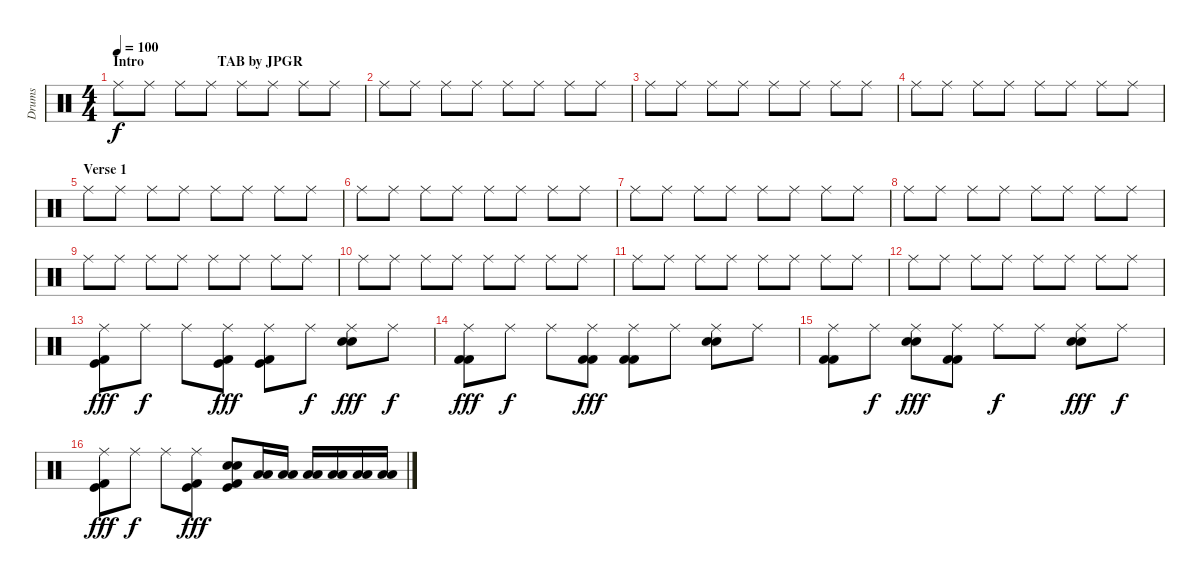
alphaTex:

\track ("Drums" "Drums") {instrument percussion}
\staff {score}
\articulation defaults
\ts (4 4)
\section ("" "Intro                     TAB by JPGR")
\tempo 100
\clef neutral
\ks c "Ride (middle)".8{dy f} "Ride (middle)".8 "Ride (middle)".8 "Ride (middle)".8 "Ride (middle)".8 "Ride (middle)".8 "Ride (middle)".8 "Ride (middle)".8
|
"Ride (middle)".8 "Ride (middle)".8 "Ride (middle)".8 "Ride (middle)".8 "Ride (middle)".8 "Ride (middle)".8 "Ride (middle)".8 "Ride (middle)".8 |
"Ride (middle)".8 "Ride (middle)".8 "Ride (middle)".8 "Ride (middle)".8 "Ride (middle)".8 "Ride (middle)".8 "Ride (middle)".8 "Ride (middle)".8 |
"Ride (middle)".8 "Ride (middle)".8 "Ride (middle)".8 "Ride (middle)".8 "Ride (middle)".8 "Ride (middle)".8 "Ride (middle)".8 "Ride (middle)".8 |
\section ("" "Verse 1")
"Ride (middle)".8 "Ride (middle)".8 "Ride (middle)".8 "Ride (middle)".8 "Ride (middle)".8 "Ride (middle)".8 "Ride (middle)".8 "Ride (middle)".8 |
"Ride (middle)".8 "Ride (middle)".8 "Ride (middle)".8 "Ride (middle)".8 "Ride (middle)".8 "Ride (middle)".8 "Ride (middle)".8 "Ride (middle)".8 |
"Ride (middle)".8 "Ride (middle)".8 "Ride (middle)".8 "Ride (middle)".8 "Ride (middle)".8 "Ride (middle)".8 "Ride (middle)".8 "Ride (middle)".8 |
"Ride (middle)".8 "Ride (middle)".8 "Ride (middle)".8 "Ride (middle)".8 "Ride (middle)".8 "Ride (middle)".8 "Ride (middle)".8 "Ride (middle)".8 |
"Ride (middle)".8 "Ride (middle)".8 "Ride (middle)".8 "Ride (middle)".8 "Ride (middle)".8 "Ride (middle)".8 "Ride (middle)".8 "Ride (middle)".8 |
"Ride (middle)".8 "Ride (middle)".8 "Ride (middle)".8 "Ride (middle)".8 "Ride (middle)".8 "Ride (middle)".8 "Ride (middle)".8 "Ride (middle)".8 |
"Ride (middle)".8 "Ride (middle)".8 "Ride (middle)".8 "Ride (middle)".8 "Ride (middle)".8 "Ride (middle)".8 "Ride (middle)".8 "Ride (middle)".8 |
"Ride (middle)".8 "Ride (middle)".8 "Ride (middle)".8 "Ride (middle)".8 "Ride (middle)".8 "Ride (middle)".8 "Ride (middle)".8 "Ride (middle)".8 |
("Ride (middle)" "Kick (hit) 2" "Kick (hit)").8{dy fff} "Ride (middle)".8{dy f} "Ride (middle)".8 ("Ride (middle)" "Kick (hit) 2" "Kick (hit)").8{dy fff} ("Ride (middle)" "Kick (hit) 2" "Kick (hit)").8 "Ride (middle)".8{dy f} ("Ride (middle)" "Electric Snare (hit)" "Electric Snare (hit)").8{dy fff} "Ride (middle)".8{dy f} |
("Ride (middle)" "Kick (hit) 2" "Kick (hit) 2").8{dy fff} "Ride (middle)".8{dy f} "Ride (middle)".8 ("Ride (middle)" "Kick (hit) 2" "Kick (hit) 2").8{dy fff} ("Ride (middle)" "Kick (hit) 2" "Kick (hit) 2").8 "Ride (middle)".8 ("Ride (middle)" "Electric Snare (hit)" "Electric Snare (hit)").8 "Ride (middle)".8 |
("Ride (middle)" "Kick (hit) 2" "Kick (hit) 2").8 "Ride (middle)".8{dy f} ("Ride (middle)" "Electric Snare (hit)" "Electric Snare (hit)").8{dy fff} ("Ride (middle)" "Kick (hit) 2" "Kick (hit) 2").8 "Ride (middle)".8{dy f} "Ride (middle)".8 ("Ride (middle)" "Electric Snare (hit)" "Electric Snare (hit)").8{dy fff} "Ride (middle)".8{dy f} |
("Ride (middle)" "Kick (hit) 2" "Kick (hit)").8{dy fff} "Ride (middle)".8{dy f} "Ride (middle)".8 ("Ride (middle)" "Kick (hit) 2" "Kick (hit)").8{dy fff} ("Electric Snare (hit)" "Snare (hit) 2" "Kick (hit) 2" "Kick (hit)").8 ("Low Tom (hit)" "Low Tom (hit)").16 ("Low Tom (hit)" "Low Tom (hit)").16 ("Low Tom (hit)" "Low Tom (hit)").16 ("Low Tom (hit)" "Low Tom (hit)").16 ("Low Tom (hit)" "Low Tom (hit)").16 ("Low Tom (hit)" "Low Tom (hit)").16
